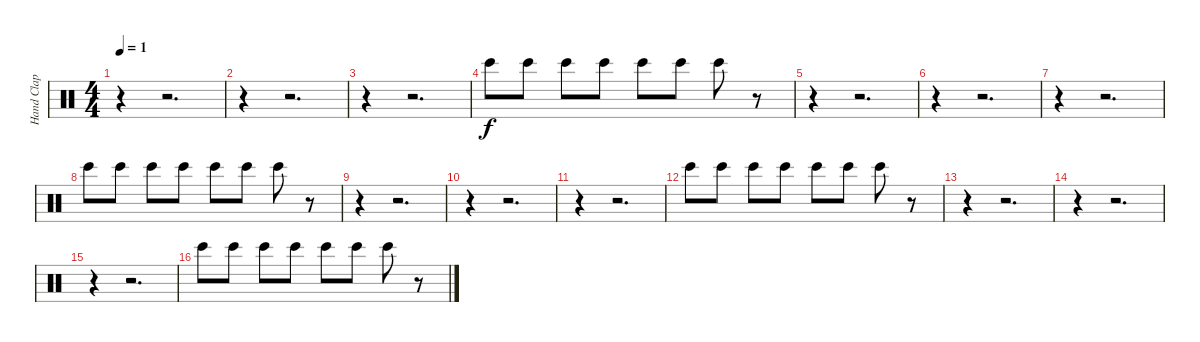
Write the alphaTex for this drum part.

\track ("Hand Clap" "Hand Clap") {instrument percussion}
\staff {score}
\articulation defaults
\ts (4 4)
\tempo 1
\clef neutral
\ks c
r.4{dy f} r.2{d} |
r.4 r.2{d} |
r.4 r.2{d} |
"Bongo High (hit)".8 "Bongo High (hit)".8 "Bongo High (hit)".8 "Bongo High (hit)".8 "Bongo High (hit)".8 "Bongo High (hit)".8 "Bongo High (hit)".8 r.8 |
r.4 r.2{d} |
r.4 r.2{d} |
r.4 r.2{d} |
"Bongo High (hit)".8 "Bongo High (hit)".8 "Bongo High (hit)".8 "Bongo High (hit)".8 "Bongo High (hit)".8 "Bongo High (hit)".8 "Bongo High (hit)".8 r.8 |
r.4 r.2{d} |
r.4 r.2{d} |
r.4 r.2{d} |
"Bongo High (hit)".8 "Bongo High (hit)".8 "Bongo High (hit)".8 "Bongo High (hit)".8 "Bongo High (hit)".8 "Bongo High (hit)".8 "Bongo High (hit)".8 r.8 |
r.4 r.2{d} |
r.4 r.2{d} |
r.4 r.2{d} |
"Bongo High (hit)".8 "Bongo High (hit)".8 "Bongo High (hit)".8 "Bongo High (hit)".8 "Bongo High (hit)".8 "Bongo High (hit)".8 "Bongo High (hit)".8 r.8
